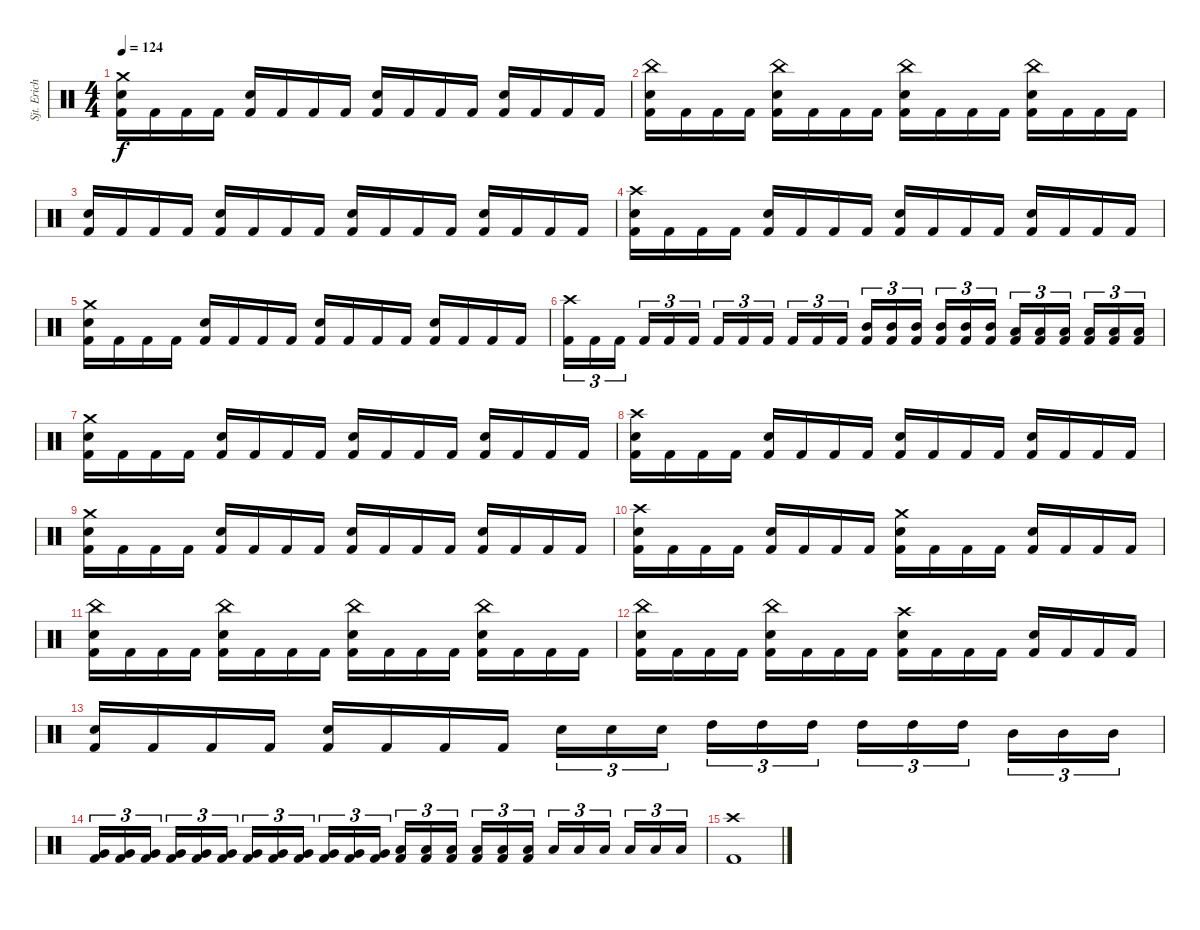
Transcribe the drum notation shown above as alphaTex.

\track ("Sjt. Erichsen" "Sjt. Erich") {instrument percussion}
\staff {score}
\articulation defaults
\ts (4 4)
\tempo 124
\clef neutral
\ks c
("Crash medium (hit)" "Electric Snare (hit)" "Kick (hit) 2").16{dy f} "Kick (hit) 2".16 "Kick (hit) 2".16 "Kick (hit) 2".16 ("Electric Snare (hit)" "Kick (hit) 2").16 "Kick (hit) 2".16 "Kick (hit) 2".16 "Kick (hit) 2".16 ("Electric Snare (hit)" "Kick (hit) 2").16 "Kick (hit) 2".16 "Kick (hit) 2".16 "Kick (hit) 2".16 ("Electric Snare (hit)" "Kick (hit) 2").16 "Kick (hit) 2".16 "Kick (hit) 2".16 "Kick (hit) 2".16 |
("China (hit)" "Electric Snare (hit)" "Kick (hit) 2").16 "Kick (hit) 2".16 "Kick (hit) 2".16 "Kick (hit) 2".16 ("China (hit)" "Electric Snare (hit)" "Kick (hit) 2").16 "Kick (hit) 2".16 "Kick (hit) 2".16 "Kick (hit) 2".16 ("China (hit)" "Electric Snare (hit)" "Kick (hit) 2").16 "Kick (hit) 2".16 "Kick (hit) 2".16 "Kick (hit) 2".16 ("China (hit)" "Electric Snare (hit)" "Kick (hit) 2").16 "Kick (hit) 2".16 "Kick (hit) 2".16 "Kick (hit) 2".16 |
("Electric Snare (hit)" "Kick (hit) 2").16 "Kick (hit) 2".16 "Kick (hit) 2".16 "Kick (hit) 2".16 ("Electric Snare (hit)" "Kick (hit) 2").16 "Kick (hit) 2".16 "Kick (hit) 2".16 "Kick (hit) 2".16 ("Electric Snare (hit)" "Kick (hit) 2").16 "Kick (hit) 2".16 "Kick (hit) 2".16 "Kick (hit) 2".16 ("Electric Snare (hit)" "Kick (hit) 2").16 "Kick (hit) 2".16 "Kick (hit) 2".16 "Kick (hit) 2".16 |
("Crash high (hit)" "Electric Snare (hit)" "Kick (hit) 2").16 "Kick (hit) 2".16 "Kick (hit) 2".16 "Kick (hit) 2".16 ("Electric Snare (hit)" "Kick (hit) 2").16 "Kick (hit) 2".16 "Kick (hit) 2".16 "Kick (hit) 2".16 ("Electric Snare (hit)" "Kick (hit) 2").16 "Kick (hit) 2".16 "Kick (hit) 2".16 "Kick (hit) 2".16 ("Electric Snare (hit)" "Kick (hit) 2").16 "Kick (hit) 2".16 "Kick (hit) 2".16 "Kick (hit) 2".16 |
("Crash medium (hit)" "Electric Snare (hit)" "Kick (hit) 2").16 "Kick (hit) 2".16 "Kick (hit) 2".16 "Kick (hit) 2".16 ("Electric Snare (hit)" "Kick (hit) 2").16 "Kick (hit) 2".16 "Kick (hit) 2".16 "Kick (hit) 2".16 ("Electric Snare (hit)" "Kick (hit) 2").16 "Kick (hit) 2".16 "Kick (hit) 2".16 "Kick (hit) 2".16 ("Electric Snare (hit)" "Kick (hit) 2").16 "Kick (hit) 2".16 "Kick (hit) 2".16 "Kick (hit) 2".16 |
("Crash high (hit)" "Kick (hit) 2").16{tu (3 2)} "Kick (hit) 2".16{tu (3 2)} "Kick (hit) 2".16{tu (3 2) beam splitsecondary} "Kick (hit) 2".16{tu (3 2)} "Kick (hit) 2".16{tu (3 2)} "Kick (hit) 2".16{tu (3 2)} "Kick (hit) 2".16{tu (3 2)} "Kick (hit) 2".16{tu (3 2)} "Kick (hit) 2".16{tu (3 2) beam splitsecondary} "Kick (hit) 2".16{tu (3 2)} "Kick (hit) 2".16{tu (3 2)} "Kick (hit) 2".16{tu (3 2)} ("Mid Tom (hit)" "Kick (hit) 2").16{tu (3 2)} ("Mid Tom (hit)" "Kick (hit) 2").16{tu (3 2)} ("Mid Tom (hit)" "Kick (hit) 2").16{tu (3 2) beam splitsecondary} ("Mid Tom (hit)" "Kick (hit) 2").16{tu (3 2)} ("Mid Tom (hit)" "Kick (hit) 2").16{tu (3 2)} ("Mid Tom (hit)" "Kick (hit) 2").16{tu (3 2)} ("Low Tom (hit)" "Kick (hit) 2").16{tu (3 2)} ("Low Tom (hit)" "Kick (hit) 2").16{tu (3 2)} ("Low Tom (hit)" "Kick (hit) 2").16{tu (3 2) beam splitsecondary} ("Low Tom (hit)" "Kick (hit) 2").16{tu (3 2)} ("Low Tom (hit)" "Kick (hit) 2").16{tu (3 2)} ("Low Tom (hit)" "Kick (hit) 2").16{tu (3 2)} |
("Crash medium (hit)" "Electric Snare (hit)" "Kick (hit) 2").16 "Kick (hit) 2".16 "Kick (hit) 2".16 "Kick (hit) 2".16 ("Electric Snare (hit)" "Kick (hit) 2").16 "Kick (hit) 2".16 "Kick (hit) 2".16 "Kick (hit) 2".16 ("Electric Snare (hit)" "Kick (hit) 2").16 "Kick (hit) 2".16 "Kick (hit) 2".16 "Kick (hit) 2".16 ("Electric Snare (hit)" "Kick (hit) 2").16 "Kick (hit) 2".16 "Kick (hit) 2".16 "Kick (hit) 2".16 |
("Crash high (hit)" "Electric Snare (hit)" "Kick (hit) 2").16 "Kick (hit) 2".16 "Kick (hit) 2".16 "Kick (hit) 2".16 ("Electric Snare (hit)" "Kick (hit) 2").16 "Kick (hit) 2".16 "Kick (hit) 2".16 "Kick (hit) 2".16 ("Electric Snare (hit)" "Kick (hit) 2").16 "Kick (hit) 2".16 "Kick (hit) 2".16 "Kick (hit) 2".16 ("Electric Snare (hit)" "Kick (hit) 2").16 "Kick (hit) 2".16 "Kick (hit) 2".16 "Kick (hit) 2".16 |
("Crash medium (hit)" "Electric Snare (hit)" "Kick (hit) 2").16 "Kick (hit) 2".16 "Kick (hit) 2".16 "Kick (hit) 2".16 ("Electric Snare (hit)" "Kick (hit) 2").16 "Kick (hit) 2".16 "Kick (hit) 2".16 "Kick (hit) 2".16 ("Electric Snare (hit)" "Kick (hit) 2").16 "Kick (hit) 2".16 "Kick (hit) 2".16 "Kick (hit) 2".16 ("Electric Snare (hit)" "Kick (hit) 2").16 "Kick (hit) 2".16 "Kick (hit) 2".16 "Kick (hit) 2".16 |
("Crash high (hit)" "Electric Snare (hit)" "Kick (hit) 2").16 "Kick (hit) 2".16 "Kick (hit) 2".16 "Kick (hit) 2".16 ("Electric Snare (hit)" "Kick (hit) 2").16 "Kick (hit) 2".16 "Kick (hit) 2".16 "Kick (hit) 2".16 ("Crash medium (hit)" "Electric Snare (hit)" "Kick (hit) 2").16 "Kick (hit) 2".16 "Kick (hit) 2".16 "Kick (hit) 2".16 ("Electric Snare (hit)" "Kick (hit) 2").16 "Kick (hit) 2".16 "Kick (hit) 2".16 "Kick (hit) 2".16 |
("China (hit)" "Electric Snare (hit)" "Kick (hit) 2").16 "Kick (hit) 2".16 "Kick (hit) 2".16 "Kick (hit) 2".16 ("China (hit)" "Electric Snare (hit)" "Kick (hit) 2").16 "Kick (hit) 2".16 "Kick (hit) 2".16 "Kick (hit) 2".16 ("China (hit)" "Electric Snare (hit)" "Kick (hit) 2").16 "Kick (hit) 2".16 "Kick (hit) 2".16 "Kick (hit) 2".16 ("China (hit)" "Electric Snare (hit)" "Kick (hit) 2").16 "Kick (hit) 2".16 "Kick (hit) 2".16 "Kick (hit) 2".16 |
("China (hit)" "Electric Snare (hit)" "Kick (hit) 2").16 "Kick (hit) 2".16 "Kick (hit) 2".16 "Kick (hit) 2".16 ("China (hit)" "Electric Snare (hit)" "Kick (hit) 2").16 "Kick (hit) 2".16 "Kick (hit) 2".16 "Kick (hit) 2".16 ("Crash high (hit)" "Electric Snare (hit)" "Kick (hit) 2").16 "Kick (hit) 2".16 "Kick (hit) 2".16 "Kick (hit) 2".16 ("Electric Snare (hit)" "Kick (hit) 2").16 "Kick (hit) 2".16 "Kick (hit) 2".16 "Kick (hit) 2".16 |
("Electric Snare (hit)" "Kick (hit) 2").16 "Kick (hit) 2".16 "Kick (hit) 2".16 "Kick (hit) 2".16 ("Electric Snare (hit)" "Kick (hit) 2").16 "Kick (hit) 2".16 "Kick (hit) 2".16 "Kick (hit) 2".16 "Electric Snare (hit)".16{tu (3 2)} "Electric Snare (hit)".16{tu (3 2)} "Electric Snare (hit)".16{tu (3 2) beam splitsecondary} "High Tom (hit)".16{tu (3 2)} "High Tom (hit)".16{tu (3 2)} "High Tom (hit)".16{tu (3 2)} "High Tom (hit)".16{tu (3 2)} "High Tom (hit)".16{tu (3 2)} "High Tom (hit)".16{tu (3 2) beam splitsecondary} "Mid Tom (hit)".16{tu (3 2)} "Mid Tom (hit)".16{tu (3 2)} "Mid Tom (hit)".16{tu (3 2)} |
("Very Low Tom (hit)" "Kick (hit) 2").16{tu (3 2)} ("Very Low Tom (hit)" "Kick (hit) 2").16{tu (3 2)} ("Very Low Tom (hit)" "Kick (hit) 2").16{tu (3 2) beam splitsecondary} ("Very Low Tom (hit)" "Kick (hit) 2").16{tu (3 2)} ("Very Low Tom (hit)" "Kick (hit) 2").16{tu (3 2)} ("Very Low Tom (hit)" "Kick (hit) 2").16{tu (3 2)} ("Very Low Tom (hit)" "Kick (hit) 2").16{tu (3 2)} ("Very Low Tom (hit)" "Kick (hit) 2").16{tu (3 2)} ("Very Low Tom (hit)" "Kick (hit) 2").16{tu (3 2) beam splitsecondary} ("Very Low Tom (hit)" "Kick (hit) 2").16{tu (3 2)} ("Very Low Tom (hit)" "Kick (hit) 2").16{tu (3 2)} ("Very Low Tom (hit)" "Kick (hit) 2").16{tu (3 2)} ("Low Floor Tom (hit)" "Kick (hit) 2").16{tu (3 2)} ("Low Floor Tom (hit)" "Kick (hit) 2").16{tu (3 2)} ("Low Floor Tom (hit)" "Kick (hit) 2").16{tu (3 2) beam splitsecondary} ("Low Floor Tom (hit)" "Kick (hit) 2").16{tu (3 2)} ("Low Floor Tom (hit)" "Kick (hit) 2").16{tu (3 2)} ("Low Floor Tom (hit)" "Kick (hit) 2").16{tu (3 2)} "Low Tom (hit)".16{tu (3 2)} "Low Tom (hit)".16{tu (3 2)} "Low Tom (hit)".16{tu (3 2) beam splitsecondary} "Low Tom (hit)".16{tu (3 2)} "Low Tom (hit)".16{tu (3 2)} "Low Tom (hit)".16{tu (3 2)} |
("Crash high (hit)" "Kick (hit) 2").1
